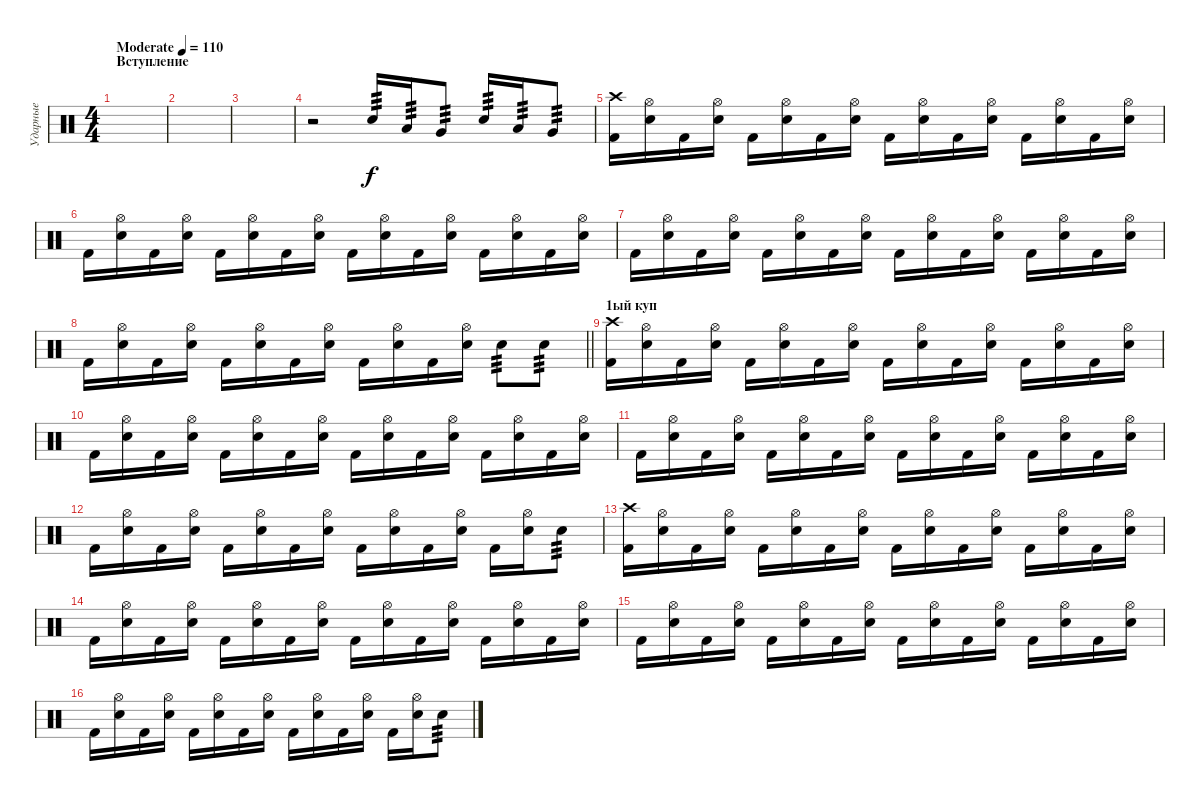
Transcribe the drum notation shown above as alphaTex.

\track ("Ударные" "Ударные") {instrument percussion}
\staff {score}
\articulation defaults
\ts (4 4)
\section ("" "Вступление")
\tempo (110 "Moderate")
\clef neutral
\ks c
|
|
|
r.2 "Electric Snare (hit)".16{tp 3} "Low Tom (hit)".16{tp 3} "Very Low Tom (hit)".8{tp 3} "Electric Snare (hit)".16{tp 3} "Low Tom (hit)".16{tp 3} "Very Low Tom (hit)".8{tp 3} |
("Crash high (hit)" "Kick (hit) 2").16 ("Hi-Hat (open)" "Electric Snare (hit)").16 "Kick (hit) 2".16 ("Hi-Hat (open)" "Electric Snare (hit)").16 "Kick (hit) 2".16 ("Hi-Hat (open)" "Electric Snare (hit)").16 "Kick (hit) 2".16 ("Hi-Hat (open)" "Electric Snare (hit)").16 "Kick (hit) 2".16 ("Hi-Hat (open)" "Electric Snare (hit)").16 "Kick (hit) 2".16 ("Hi-Hat (open)" "Electric Snare (hit)").16 "Kick (hit) 2".16 ("Hi-Hat (open)" "Electric Snare (hit)").16 "Kick (hit) 2".16 ("Hi-Hat (open)" "Electric Snare (hit)").16 |
"Kick (hit) 2".16 ("Hi-Hat (open)" "Electric Snare (hit)").16 "Kick (hit) 2".16 ("Hi-Hat (open)" "Electric Snare (hit)").16 "Kick (hit) 2".16 ("Hi-Hat (open)" "Electric Snare (hit)").16 "Kick (hit) 2".16 ("Hi-Hat (open)" "Electric Snare (hit)").16 "Kick (hit) 2".16 ("Hi-Hat (open)" "Electric Snare (hit)").16 "Kick (hit) 2".16 ("Hi-Hat (open)" "Electric Snare (hit)").16 "Kick (hit) 2".16 ("Hi-Hat (open)" "Electric Snare (hit)").16 "Kick (hit) 2".16 ("Hi-Hat (open)" "Electric Snare (hit)").16 |
"Kick (hit) 2".16 ("Hi-Hat (open)" "Electric Snare (hit)").16 "Kick (hit) 2".16 ("Hi-Hat (open)" "Electric Snare (hit)").16 "Kick (hit) 2".16 ("Hi-Hat (open)" "Electric Snare (hit)").16 "Kick (hit) 2".16 ("Hi-Hat (open)" "Electric Snare (hit)").16 "Kick (hit) 2".16 ("Hi-Hat (open)" "Electric Snare (hit)").16 "Kick (hit) 2".16 ("Hi-Hat (open)" "Electric Snare (hit)").16 "Kick (hit) 2".16 ("Hi-Hat (open)" "Electric Snare (hit)").16 "Kick (hit) 2".16 ("Hi-Hat (open)" "Electric Snare (hit)").16 |
\barLineRight lightlight "Kick (hit) 2".16
("Hi-Hat (open)" "Electric Snare (hit)").16 "Kick (hit) 2".16 ("Hi-Hat (open)" "Electric Snare (hit)").16 "Kick (hit) 2".16 ("Hi-Hat (open)" "Electric Snare (hit)").16 "Kick (hit) 2".16 ("Hi-Hat (open)" "Electric Snare (hit)").16 "Kick (hit) 2".16 ("Hi-Hat (open)" "Electric Snare (hit)").16 "Kick (hit) 2".16 ("Hi-Hat (open)" "Electric Snare (hit)").16 "Electric Snare (hit)".8{tp 3} "Electric Snare (hit)".8{tp 3} |
\section ("" "1ый куп")
("Crash high (hit)" "Kick (hit) 2").16 ("Hi-Hat (open)" "Electric Snare (hit)").16 "Kick (hit) 2".16 ("Hi-Hat (open)" "Electric Snare (hit)").16 "Kick (hit) 2".16 ("Hi-Hat (open)" "Electric Snare (hit)").16 "Kick (hit) 2".16 ("Hi-Hat (open)" "Electric Snare (hit)").16 "Kick (hit) 2".16 ("Hi-Hat (open)" "Electric Snare (hit)").16 "Kick (hit) 2".16 ("Hi-Hat (open)" "Electric Snare (hit)").16 "Kick (hit) 2".16 ("Hi-Hat (open)" "Electric Snare (hit)").16 "Kick (hit) 2".16 ("Hi-Hat (open)" "Electric Snare (hit)").16 |
"Kick (hit) 2".16 ("Hi-Hat (open)" "Electric Snare (hit)").16 "Kick (hit) 2".16 ("Hi-Hat (open)" "Electric Snare (hit)").16 "Kick (hit) 2".16 ("Hi-Hat (open)" "Electric Snare (hit)").16 "Kick (hit) 2".16 ("Hi-Hat (open)" "Electric Snare (hit)").16 "Kick (hit) 2".16 ("Hi-Hat (open)" "Electric Snare (hit)").16 "Kick (hit) 2".16 ("Hi-Hat (open)" "Electric Snare (hit)").16 "Kick (hit) 2".16 ("Hi-Hat (open)" "Electric Snare (hit)").16 "Kick (hit) 2".16 ("Hi-Hat (open)" "Electric Snare (hit)").16 |
"Kick (hit) 2".16 ("Hi-Hat (open)" "Electric Snare (hit)").16 "Kick (hit) 2".16 ("Hi-Hat (open)" "Electric Snare (hit)").16 "Kick (hit) 2".16 ("Hi-Hat (open)" "Electric Snare (hit)").16 "Kick (hit) 2".16 ("Hi-Hat (open)" "Electric Snare (hit)").16 "Kick (hit) 2".16 ("Hi-Hat (open)" "Electric Snare (hit)").16 "Kick (hit) 2".16 ("Hi-Hat (open)" "Electric Snare (hit)").16 "Kick (hit) 2".16 ("Hi-Hat (open)" "Electric Snare (hit)").16 "Kick (hit) 2".16 ("Hi-Hat (open)" "Electric Snare (hit)").16 |
"Kick (hit) 2".16 ("Hi-Hat (open)" "Electric Snare (hit)").16 "Kick (hit) 2".16 ("Hi-Hat (open)" "Electric Snare (hit)").16 "Kick (hit) 2".16 ("Hi-Hat (open)" "Electric Snare (hit)").16 "Kick (hit) 2".16 ("Hi-Hat (open)" "Electric Snare (hit)").16 "Kick (hit) 2".16 ("Hi-Hat (open)" "Electric Snare (hit)").16 "Kick (hit) 2".16 ("Hi-Hat (open)" "Electric Snare (hit)").16 "Kick (hit) 2".16 ("Hi-Hat (open)" "Electric Snare (hit)").16 "Electric Snare (hit)".8{tp 3} |
("Crash high (hit)" "Kick (hit) 2").16 ("Hi-Hat (open)" "Electric Snare (hit)").16 "Kick (hit) 2".16 ("Hi-Hat (open)" "Electric Snare (hit)").16 "Kick (hit) 2".16 ("Hi-Hat (open)" "Electric Snare (hit)").16 "Kick (hit) 2".16 ("Hi-Hat (open)" "Electric Snare (hit)").16 "Kick (hit) 2".16 ("Hi-Hat (open)" "Electric Snare (hit)").16 "Kick (hit) 2".16 ("Hi-Hat (open)" "Electric Snare (hit)").16 "Kick (hit) 2".16 ("Hi-Hat (open)" "Electric Snare (hit)").16 "Kick (hit) 2".16 ("Hi-Hat (open)" "Electric Snare (hit)").16 |
"Kick (hit) 2".16 ("Hi-Hat (open)" "Electric Snare (hit)").16 "Kick (hit) 2".16 ("Hi-Hat (open)" "Electric Snare (hit)").16 "Kick (hit) 2".16 ("Hi-Hat (open)" "Electric Snare (hit)").16 "Kick (hit) 2".16 ("Hi-Hat (open)" "Electric Snare (hit)").16 "Kick (hit) 2".16 ("Hi-Hat (open)" "Electric Snare (hit)").16 "Kick (hit) 2".16 ("Hi-Hat (open)" "Electric Snare (hit)").16 "Kick (hit) 2".16 ("Hi-Hat (open)" "Electric Snare (hit)").16 "Kick (hit) 2".16 ("Hi-Hat (open)" "Electric Snare (hit)").16 |
"Kick (hit) 2".16 ("Hi-Hat (open)" "Electric Snare (hit)").16 "Kick (hit) 2".16 ("Hi-Hat (open)" "Electric Snare (hit)").16 "Kick (hit) 2".16 ("Hi-Hat (open)" "Electric Snare (hit)").16 "Kick (hit) 2".16 ("Hi-Hat (open)" "Electric Snare (hit)").16 "Kick (hit) 2".16 ("Hi-Hat (open)" "Electric Snare (hit)").16 "Kick (hit) 2".16 ("Hi-Hat (open)" "Electric Snare (hit)").16 "Kick (hit) 2".16 ("Hi-Hat (open)" "Electric Snare (hit)").16 "Kick (hit) 2".16 ("Hi-Hat (open)" "Electric Snare (hit)").16 |
"Kick (hit) 2".16 ("Hi-Hat (open)" "Electric Snare (hit)").16 "Kick (hit) 2".16 ("Hi-Hat (open)" "Electric Snare (hit)").16 "Kick (hit) 2".16 ("Hi-Hat (open)" "Electric Snare (hit)").16 "Kick (hit) 2".16 ("Hi-Hat (open)" "Electric Snare (hit)").16 "Kick (hit) 2".16 ("Hi-Hat (open)" "Electric Snare (hit)").16 "Kick (hit) 2".16 ("Hi-Hat (open)" "Electric Snare (hit)").16 "Kick (hit) 2".16 ("Hi-Hat (open)" "Electric Snare (hit)").16 "Electric Snare (hit)".8{tp 3}
